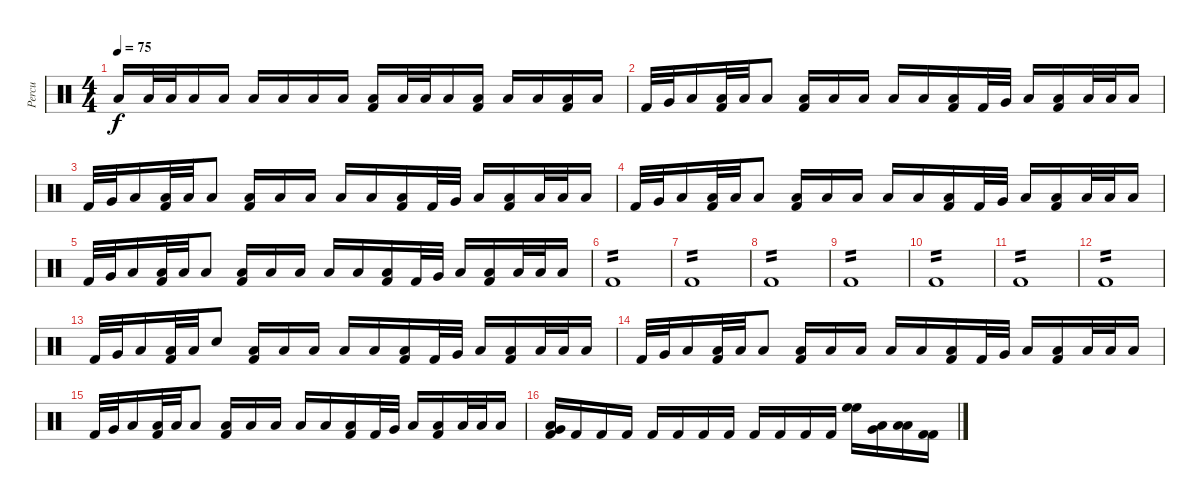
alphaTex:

\track ("Percu" "Percu") {instrument percussion}
\staff {score}
\articulation defaults
\ts (4 4)
\tempo 75
\clef neutral
\ks c "Low Floor Tom (hit)".16{dy f} "Low Floor Tom (hit)".32 "Low Floor Tom (hit)".32 "Low Floor Tom (hit)".16 "Low Floor Tom (hit)".16 "Low Floor Tom (hit)".16 "Low Floor Tom (hit)".16 "Low Floor Tom (hit)".16 "Low Floor Tom (hit)".16
("Low Floor Tom (hit)" "Kick (hit) 2").16 "Low Floor Tom (hit)".32 "Low Floor Tom (hit)".32 "Low Floor Tom (hit)".16 ("Low Floor Tom (hit)" "Kick (hit) 2").16 "Low Floor Tom (hit)".16 "Low Floor Tom (hit)".16 ("Low Floor Tom (hit)" "Kick (hit) 2").16 "Low Floor Tom (hit)".16 |
"Kick (hit) 2".32 "Very Low Tom (hit)".32 "Low Floor Tom (hit)".16 ("Low Floor Tom (hit)" "Kick (hit) 2").32 "Low Floor Tom (hit)".32 "Low Floor Tom (hit)".8 ("Low Floor Tom (hit)" "Kick (hit) 2").16 "Low Floor Tom (hit)".16 "Low Floor Tom (hit)".16 "Low Floor Tom (hit)".16 "Low Floor Tom (hit)".16 ("Low Floor Tom (hit)" "Kick (hit) 2").16 "Kick (hit) 2".32 "Very Low Tom (hit)".32 "Low Floor Tom (hit)".16 ("Low Floor Tom (hit)" "Kick (hit) 2").16 "Low Floor Tom (hit)".32 "Low Floor Tom (hit)".32 "Low Floor Tom (hit)".16 |
"Kick (hit) 2".32 "Very Low Tom (hit)".32 "Low Floor Tom (hit)".16 ("Low Floor Tom (hit)" "Kick (hit) 2").32 "Low Floor Tom (hit)".32 "Low Floor Tom (hit)".8 ("Low Floor Tom (hit)" "Kick (hit) 2").16 "Low Floor Tom (hit)".16 "Low Floor Tom (hit)".16 "Low Floor Tom (hit)".16 "Low Floor Tom (hit)".16 ("Low Floor Tom (hit)" "Kick (hit) 2").16 "Kick (hit) 2".32 "Very Low Tom (hit)".32 "Low Floor Tom (hit)".16 ("Low Floor Tom (hit)" "Kick (hit) 2").16 "Low Floor Tom (hit)".32 "Low Floor Tom (hit)".32 "Low Floor Tom (hit)".16 |
"Kick (hit) 2".32 "Very Low Tom (hit)".32 "Low Floor Tom (hit)".16 ("Low Floor Tom (hit)" "Kick (hit) 2").32 "Low Floor Tom (hit)".32 "Low Floor Tom (hit)".8 ("Low Floor Tom (hit)" "Kick (hit) 2").16 "Low Floor Tom (hit)".16 "Low Floor Tom (hit)".16 "Low Floor Tom (hit)".16 "Low Floor Tom (hit)".16 ("Low Floor Tom (hit)" "Kick (hit) 2").16 "Kick (hit) 2".32 "Very Low Tom (hit)".32 "Low Floor Tom (hit)".16 ("Low Floor Tom (hit)" "Kick (hit) 2").16 "Low Floor Tom (hit)".32 "Low Floor Tom (hit)".32 "Low Floor Tom (hit)".16 |
"Kick (hit) 2".32 "Very Low Tom (hit)".32 "Low Floor Tom (hit)".16 ("Low Floor Tom (hit)" "Kick (hit) 2").32 "Low Floor Tom (hit)".32 "Low Floor Tom (hit)".8 ("Low Floor Tom (hit)" "Kick (hit) 2").16 "Low Floor Tom (hit)".16 "Low Floor Tom (hit)".16 "Low Floor Tom (hit)".16 "Low Floor Tom (hit)".16 ("Low Floor Tom (hit)" "Kick (hit) 2").16 "Kick (hit) 2".32 "Very Low Tom (hit)".32 "Low Floor Tom (hit)".16 ("Low Floor Tom (hit)" "Kick (hit) 2").16 "Low Floor Tom (hit)".32 "Low Floor Tom (hit)".32 "Low Floor Tom (hit)".16 |
"Kick (hit) 2".1{tp 2} |
"Kick (hit) 2".1{tp 2} |
"Kick (hit) 2".1{tp 2} |
"Kick (hit) 2".1{tp 2} |
"Kick (hit) 2".1{tp 2} |
"Kick (hit) 2".1{tp 2} |
"Kick (hit) 2".1{tp 2} |
"Kick (hit) 2".32 "Very Low Tom (hit)".32 "Low Floor Tom (hit)".16 ("Low Floor Tom (hit)" "Kick (hit) 2").32 "Low Floor Tom (hit)".32 "Snare (hit)".8 ("Low Floor Tom (hit)" "Kick (hit) 2").16 "Low Floor Tom (hit)".16 "Low Floor Tom (hit)".16 "Low Floor Tom (hit)".16 "Low Floor Tom (hit)".16 ("Low Floor Tom (hit)" "Kick (hit) 2").16 "Kick (hit) 2".32 "Very Low Tom (hit)".32 "Low Floor Tom (hit)".16 ("Low Floor Tom (hit)" "Kick (hit) 2").16 "Low Floor Tom (hit)".32 "Low Floor Tom (hit)".32 "Low Floor Tom (hit)".16 |
"Kick (hit) 2".32 "Very Low Tom (hit)".32 "Low Floor Tom (hit)".16 ("Low Floor Tom (hit)" "Kick (hit) 2").32 "Low Floor Tom (hit)".32 "Low Floor Tom (hit)".8 ("Low Floor Tom (hit)" "Kick (hit) 2").16 "Low Floor Tom (hit)".16 "Low Floor Tom (hit)".16 "Low Floor Tom (hit)".16 "Low Floor Tom (hit)".16 ("Low Floor Tom (hit)" "Kick (hit) 2").16 "Kick (hit) 2".32 "Very Low Tom (hit)".32 "Low Floor Tom (hit)".16 ("Low Floor Tom (hit)" "Kick (hit) 2").16 "Low Floor Tom (hit)".32 "Low Floor Tom (hit)".32 "Low Floor Tom (hit)".16 |
"Kick (hit) 2".32 "Very Low Tom (hit)".32 "Low Floor Tom (hit)".16 ("Low Floor Tom (hit)" "Kick (hit) 2").32 "Low Floor Tom (hit)".32 "Low Floor Tom (hit)".8 ("Low Floor Tom (hit)" "Kick (hit) 2").16 "Low Floor Tom (hit)".16 "Low Floor Tom (hit)".16 "Low Floor Tom (hit)".16 "Low Floor Tom (hit)".16 ("Low Floor Tom (hit)" "Kick (hit) 2").16 "Kick (hit) 2".32 "Very Low Tom (hit)".32 "Low Floor Tom (hit)".16 ("Low Floor Tom (hit)" "Kick (hit) 2").16 "Low Floor Tom (hit)".32 "Low Floor Tom (hit)".32 "Low Floor Tom (hit)".16 |
("Low Floor Tom (hit)" "Very Low Tom (hit)" "Kick (hit) 2").16 "Kick (hit) 2".16 "Kick (hit) 2".16 "Kick (hit) 2".16 "Kick (hit) 2".16 "Kick (hit) 2".16 "Kick (hit) 2".16 "Kick (hit) 2".16 "Kick (hit) 2".16 "Kick (hit) 2".16 "Kick (hit) 2".16 "Kick (hit) 2".16 ("High Floor Tom (hit)" "High Floor Tom (hit)").16 ("Very Low Tom (hit)" "Low Floor Tom (hit)").16 ("Low Floor Tom (hit)" "Low Floor Tom (hit)").16 ("Kick (hit) 2" "Kick (hit) 2").16
